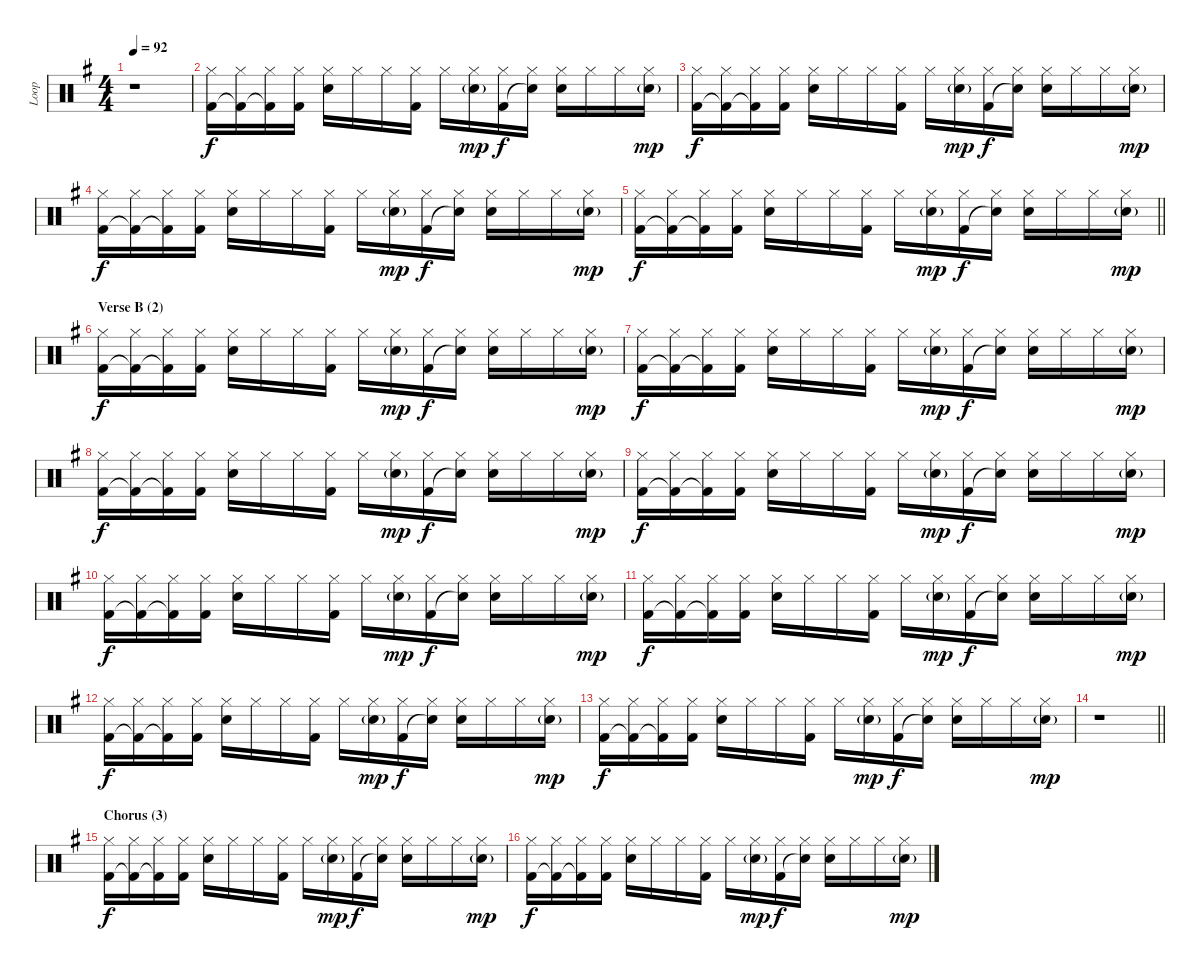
\track ("Loop" "Loop") {instrument percussion}
\staff {score}
\articulation defaults
\ts (4 4)
\tempo 92
\clef neutral
\ks g
r.1{dy mp} |
("Hi-Hat (closed)" "Kick (hit) 2").16{dy f} ("Hi-Hat (closed)" "Kick (hit) 2"{t}).16 ("Hi-Hat (closed)" "Kick (hit) 2"{t}).16 ("Hi-Hat (closed)" "Kick (hit) 2").16 ("Hi-Hat (closed)" "Electric Snare (hit)").16 "Hi-Hat (closed)".16 "Hi-Hat (closed)".16 ("Hi-Hat (closed)" "Kick (hit) 2").16 "Hi-Hat (closed)".16 ("Hi-Hat (closed)" "Electric Snare (hit)"{g}).16{dy mp} ("Hi-Hat (closed)" "Kick (hit) 2").16{dy f} ("Hi-Hat (closed)" "Snare (hit)"{t}).16 ("Hi-Hat (closed)" "Electric Snare (hit)").16 "Hi-Hat (closed)".16 "Hi-Hat (closed)".16 ("Hi-Hat (closed)" "Electric Snare (hit)"{g}).16{dy mp} |
("Hi-Hat (closed)" "Kick (hit) 2").16{dy f} ("Hi-Hat (closed)" "Kick (hit) 2"{t}).16 ("Hi-Hat (closed)" "Kick (hit) 2"{t}).16 ("Hi-Hat (closed)" "Kick (hit) 2").16 ("Hi-Hat (closed)" "Electric Snare (hit)").16 "Hi-Hat (closed)".16 "Hi-Hat (closed)".16 ("Hi-Hat (closed)" "Kick (hit) 2").16 "Hi-Hat (closed)".16 ("Hi-Hat (closed)" "Electric Snare (hit)"{g}).16{dy mp} ("Hi-Hat (closed)" "Kick (hit) 2").16{dy f} ("Hi-Hat (closed)" "Snare (hit)"{t}).16 ("Hi-Hat (closed)" "Electric Snare (hit)").16 "Hi-Hat (closed)".16 "Hi-Hat (closed)".16 ("Hi-Hat (closed)" "Electric Snare (hit)"{g}).16{dy mp} |
("Hi-Hat (closed)" "Kick (hit) 2").16{dy f} ("Hi-Hat (closed)" "Kick (hit) 2"{t}).16 ("Hi-Hat (closed)" "Kick (hit) 2"{t}).16 ("Hi-Hat (closed)" "Kick (hit) 2").16 ("Hi-Hat (closed)" "Electric Snare (hit)").16 "Hi-Hat (closed)".16 "Hi-Hat (closed)".16 ("Hi-Hat (closed)" "Kick (hit) 2").16 "Hi-Hat (closed)".16 ("Hi-Hat (closed)" "Electric Snare (hit)"{g}).16{dy mp} ("Hi-Hat (closed)" "Kick (hit) 2").16{dy f} ("Hi-Hat (closed)" "Snare (hit)"{t}).16 ("Hi-Hat (closed)" "Electric Snare (hit)").16 "Hi-Hat (closed)".16 "Hi-Hat (closed)".16 ("Hi-Hat (closed)" "Electric Snare (hit)"{g}).16{dy mp} |
\barLineRight lightlight
("Hi-Hat (closed)" "Kick (hit) 2").16{dy f} ("Hi-Hat (closed)" "Kick (hit) 2"{t}).16 ("Hi-Hat (closed)" "Kick (hit) 2"{t}).16 ("Hi-Hat (closed)" "Kick (hit) 2").16 ("Hi-Hat (closed)" "Electric Snare (hit)").16 "Hi-Hat (closed)".16 "Hi-Hat (closed)".16 ("Hi-Hat (closed)" "Kick (hit) 2").16 "Hi-Hat (closed)".16 ("Hi-Hat (closed)" "Electric Snare (hit)"{g}).16{dy mp} ("Hi-Hat (closed)" "Kick (hit) 2").16{dy f} ("Hi-Hat (closed)" "Snare (hit)"{t}).16 ("Hi-Hat (closed)" "Electric Snare (hit)").16 "Hi-Hat (closed)".16 "Hi-Hat (closed)".16 ("Hi-Hat (closed)" "Electric Snare (hit)"{g}).16{dy mp} |
\section ("" "Verse B (2)")
("Hi-Hat (closed)" "Kick (hit) 2").16{dy f} ("Hi-Hat (closed)" "Kick (hit) 2"{t}).16 ("Hi-Hat (closed)" "Kick (hit) 2"{t}).16 ("Hi-Hat (closed)" "Kick (hit) 2").16 ("Hi-Hat (closed)" "Electric Snare (hit)").16 "Hi-Hat (closed)".16 "Hi-Hat (closed)".16 ("Hi-Hat (closed)" "Kick (hit) 2").16 "Hi-Hat (closed)".16 ("Hi-Hat (closed)" "Electric Snare (hit)"{g}).16{dy mp} ("Hi-Hat (closed)" "Kick (hit) 2").16{dy f} ("Hi-Hat (closed)" "Snare (hit)"{t}).16 ("Hi-Hat (closed)" "Electric Snare (hit)").16 "Hi-Hat (closed)".16 "Hi-Hat (closed)".16 ("Hi-Hat (closed)" "Electric Snare (hit)"{g}).16{dy mp} |
("Hi-Hat (closed)" "Kick (hit) 2").16{dy f} ("Hi-Hat (closed)" "Kick (hit) 2"{t}).16 ("Hi-Hat (closed)" "Kick (hit) 2"{t}).16 ("Hi-Hat (closed)" "Kick (hit) 2").16 ("Hi-Hat (closed)" "Electric Snare (hit)").16 "Hi-Hat (closed)".16 "Hi-Hat (closed)".16 ("Hi-Hat (closed)" "Kick (hit) 2").16 "Hi-Hat (closed)".16 ("Hi-Hat (closed)" "Electric Snare (hit)"{g}).16{dy mp} ("Hi-Hat (closed)" "Kick (hit) 2").16{dy f} ("Hi-Hat (closed)" "Snare (hit)"{t}).16 ("Hi-Hat (closed)" "Electric Snare (hit)").16 "Hi-Hat (closed)".16 "Hi-Hat (closed)".16 ("Hi-Hat (closed)" "Electric Snare (hit)"{g}).16{dy mp} |
("Hi-Hat (closed)" "Kick (hit) 2").16{dy f} ("Hi-Hat (closed)" "Kick (hit) 2"{t}).16 ("Hi-Hat (closed)" "Kick (hit) 2"{t}).16 ("Hi-Hat (closed)" "Kick (hit) 2").16 ("Hi-Hat (closed)" "Electric Snare (hit)").16 "Hi-Hat (closed)".16 "Hi-Hat (closed)".16 ("Hi-Hat (closed)" "Kick (hit) 2").16 "Hi-Hat (closed)".16 ("Hi-Hat (closed)" "Electric Snare (hit)"{g}).16{dy mp} ("Hi-Hat (closed)" "Kick (hit) 2").16{dy f} ("Hi-Hat (closed)" "Snare (hit)"{t}).16 ("Hi-Hat (closed)" "Electric Snare (hit)").16 "Hi-Hat (closed)".16 "Hi-Hat (closed)".16 ("Hi-Hat (closed)" "Electric Snare (hit)"{g}).16{dy mp} |
("Hi-Hat (closed)" "Kick (hit) 2").16{dy f} ("Hi-Hat (closed)" "Kick (hit) 2"{t}).16 ("Hi-Hat (closed)" "Kick (hit) 2"{t}).16 ("Hi-Hat (closed)" "Kick (hit) 2").16 ("Hi-Hat (closed)" "Electric Snare (hit)").16 "Hi-Hat (closed)".16 "Hi-Hat (closed)".16 ("Hi-Hat (closed)" "Kick (hit) 2").16 "Hi-Hat (closed)".16 ("Hi-Hat (closed)" "Electric Snare (hit)"{g}).16{dy mp} ("Hi-Hat (closed)" "Kick (hit) 2").16{dy f} ("Hi-Hat (closed)" "Snare (hit)"{t}).16 ("Hi-Hat (closed)" "Electric Snare (hit)").16 "Hi-Hat (closed)".16 "Hi-Hat (closed)".16 ("Hi-Hat (closed)" "Electric Snare (hit)"{g}).16{dy mp} |
("Hi-Hat (closed)" "Kick (hit) 2").16{dy f} ("Hi-Hat (closed)" "Kick (hit) 2"{t}).16 ("Hi-Hat (closed)" "Kick (hit) 2"{t}).16 ("Hi-Hat (closed)" "Kick (hit) 2").16 ("Hi-Hat (closed)" "Electric Snare (hit)").16 "Hi-Hat (closed)".16 "Hi-Hat (closed)".16 ("Hi-Hat (closed)" "Kick (hit) 2").16 "Hi-Hat (closed)".16 ("Hi-Hat (closed)" "Electric Snare (hit)"{g}).16{dy mp} ("Hi-Hat (closed)" "Kick (hit) 2").16{dy f} ("Hi-Hat (closed)" "Snare (hit)"{t}).16 ("Hi-Hat (closed)" "Electric Snare (hit)").16 "Hi-Hat (closed)".16 "Hi-Hat (closed)".16 ("Hi-Hat (closed)" "Electric Snare (hit)"{g}).16{dy mp} |
("Hi-Hat (closed)" "Kick (hit) 2").16{dy f} ("Hi-Hat (closed)" "Kick (hit) 2"{t}).16 ("Hi-Hat (closed)" "Kick (hit) 2"{t}).16 ("Hi-Hat (closed)" "Kick (hit) 2").16 ("Hi-Hat (closed)" "Electric Snare (hit)").16 "Hi-Hat (closed)".16 "Hi-Hat (closed)".16 ("Hi-Hat (closed)" "Kick (hit) 2").16 "Hi-Hat (closed)".16 ("Hi-Hat (closed)" "Electric Snare (hit)"{g}).16{dy mp} ("Hi-Hat (closed)" "Kick (hit) 2").16{dy f} ("Hi-Hat (closed)" "Snare (hit)"{t}).16 ("Hi-Hat (closed)" "Electric Snare (hit)").16 "Hi-Hat (closed)".16 "Hi-Hat (closed)".16 ("Hi-Hat (closed)" "Electric Snare (hit)"{g}).16{dy mp} |
("Hi-Hat (closed)" "Kick (hit) 2").16{dy f} ("Hi-Hat (closed)" "Kick (hit) 2"{t}).16 ("Hi-Hat (closed)" "Kick (hit) 2"{t}).16 ("Hi-Hat (closed)" "Kick (hit) 2").16 ("Hi-Hat (closed)" "Electric Snare (hit)").16 "Hi-Hat (closed)".16 "Hi-Hat (closed)".16 ("Hi-Hat (closed)" "Kick (hit) 2").16 "Hi-Hat (closed)".16 ("Hi-Hat (closed)" "Electric Snare (hit)"{g}).16{dy mp} ("Hi-Hat (closed)" "Kick (hit) 2").16{dy f} ("Hi-Hat (closed)" "Snare (hit)"{t}).16 ("Hi-Hat (closed)" "Electric Snare (hit)").16 "Hi-Hat (closed)".16 "Hi-Hat (closed)".16 ("Hi-Hat (closed)" "Electric Snare (hit)"{g}).16{dy mp} |
("Hi-Hat (closed)" "Kick (hit) 2").16{dy f} ("Hi-Hat (closed)" "Kick (hit) 2"{t}).16 ("Hi-Hat (closed)" "Kick (hit) 2"{t}).16 ("Hi-Hat (closed)" "Kick (hit) 2").16 ("Hi-Hat (closed)" "Electric Snare (hit)").16 "Hi-Hat (closed)".16 "Hi-Hat (closed)".16 ("Hi-Hat (closed)" "Kick (hit) 2").16 "Hi-Hat (closed)".16 ("Hi-Hat (closed)" "Electric Snare (hit)"{g}).16{dy mp} ("Hi-Hat (closed)" "Kick (hit) 2").16{dy f} ("Hi-Hat (closed)" "Snare (hit)"{t}).16 ("Hi-Hat (closed)" "Electric Snare (hit)").16 "Hi-Hat (closed)".16 "Hi-Hat (closed)".16 ("Hi-Hat (closed)" "Electric Snare (hit)"{g}).16{dy mp} |
\barLineRight lightlight
r.1 |
\section ("" "Chorus (3)")
("Hi-Hat (closed)" "Kick (hit) 2").16{dy f} ("Hi-Hat (closed)" "Kick (hit) 2"{t}).16 ("Hi-Hat (closed)" "Kick (hit) 2"{t}).16 ("Hi-Hat (closed)" "Kick (hit) 2").16 ("Hi-Hat (closed)" "Electric Snare (hit)").16 "Hi-Hat (closed)".16 "Hi-Hat (closed)".16 ("Hi-Hat (closed)" "Kick (hit) 2").16 "Hi-Hat (closed)".16 ("Hi-Hat (closed)" "Electric Snare (hit)"{g}).16{dy mp} ("Hi-Hat (closed)" "Kick (hit) 2").16{dy f} ("Hi-Hat (closed)" "Snare (hit)"{t}).16 ("Hi-Hat (closed)" "Electric Snare (hit)").16 "Hi-Hat (closed)".16 "Hi-Hat (closed)".16 ("Hi-Hat (closed)" "Electric Snare (hit)"{g}).16{dy mp} |
("Hi-Hat (closed)" "Kick (hit) 2").16{dy f} ("Hi-Hat (closed)" "Kick (hit) 2"{t}).16 ("Hi-Hat (closed)" "Kick (hit) 2"{t}).16 ("Hi-Hat (closed)" "Kick (hit) 2").16 ("Hi-Hat (closed)" "Electric Snare (hit)").16 "Hi-Hat (closed)".16 "Hi-Hat (closed)".16 ("Hi-Hat (closed)" "Kick (hit) 2").16 "Hi-Hat (closed)".16 ("Hi-Hat (closed)" "Electric Snare (hit)"{g}).16{dy mp} ("Hi-Hat (closed)" "Kick (hit) 2").16{dy f} ("Hi-Hat (closed)" "Snare (hit)"{t}).16 ("Hi-Hat (closed)" "Electric Snare (hit)").16 "Hi-Hat (closed)".16 "Hi-Hat (closed)".16 ("Hi-Hat (closed)" "Electric Snare (hit)"{g}).16{dy mp}
